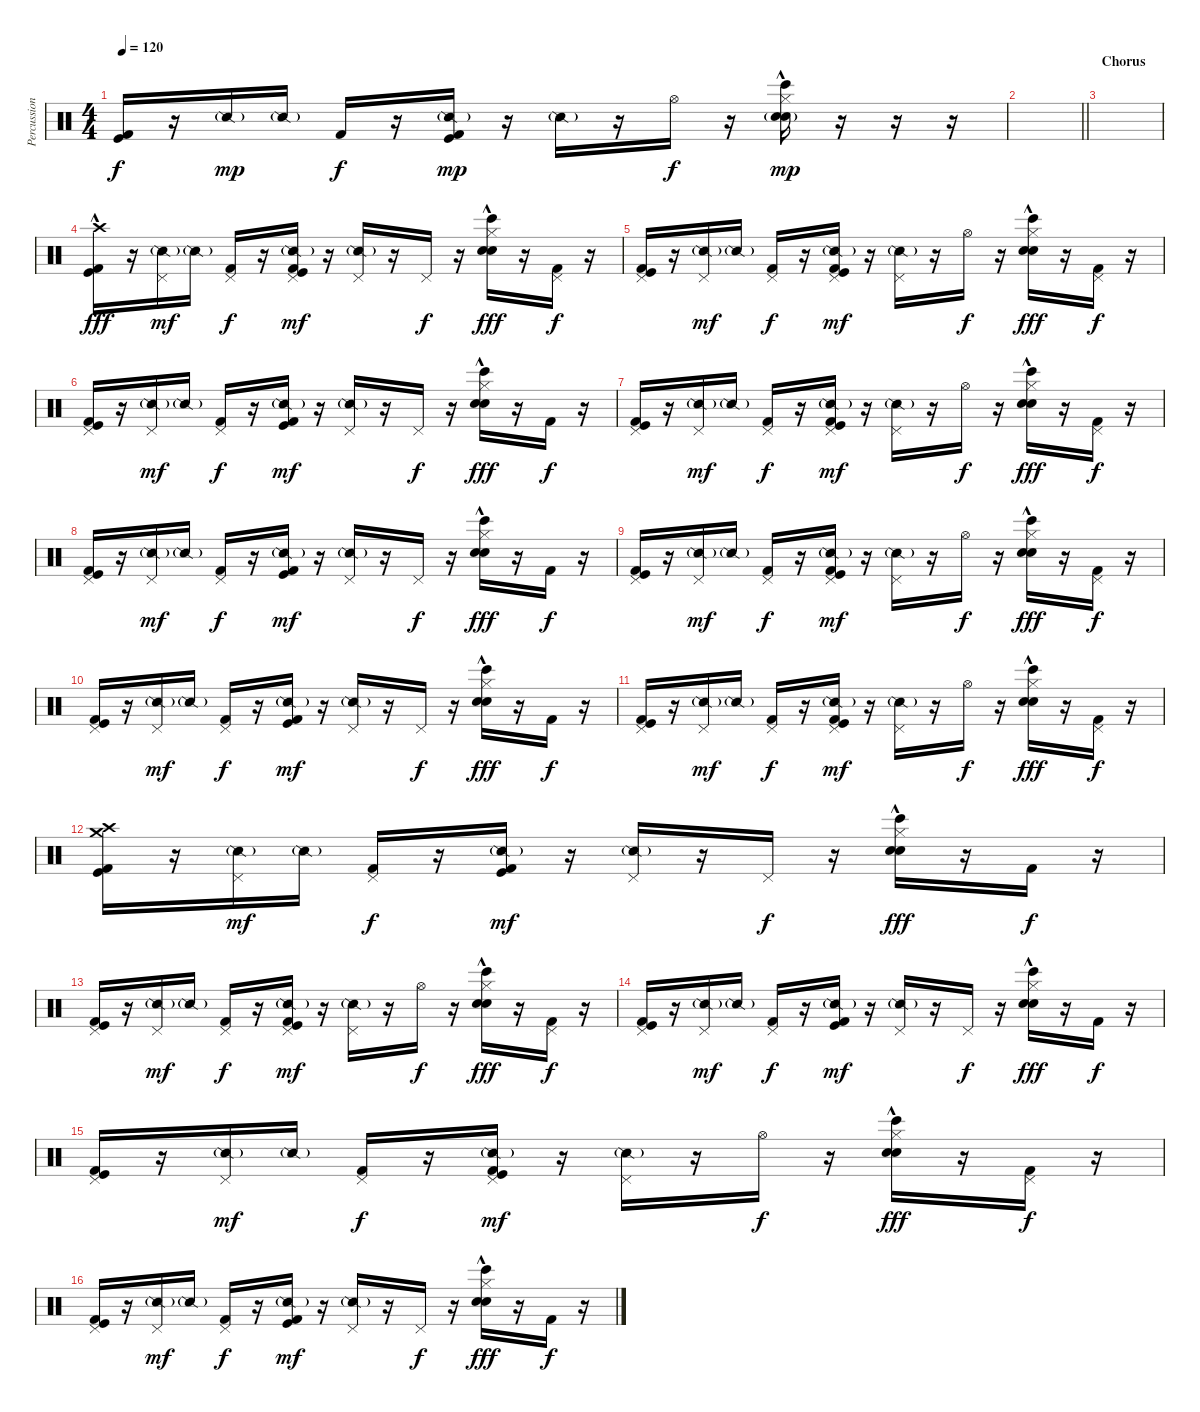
\track ("Percussion" "Percussion") {instrument percussion}
\staff {score}
\articulation defaults
\ts (4 4)
\tempo 120
\clef neutral
\ks c
("Kick (hit) 2" "Kick (hit)").16{dy f} r.16 "Snare (side stick) 2"{g}.16{dy mp} "Snare (side stick) 2"{g}.16 "Kick (hit) 2".16{dy f} r.16 ("Snare (side stick) 2"{g} "Kick (hit) 2" "Kick (hit)").16{dy mp} r.16 "Snare (side stick) 2"{g}.16 r.16 "Hi-Hat (open)".16{dy f} r.16 ("Hi-Hat (closed)"{hac} "Hand Clap (hit)" "Bongo High (hit)" "Electric Snare (hit)"{g}).16{dy mp} r.16 r.16 r.16 |
\barLineRight lightlight
|
\section ("" "Chorus")
|
("Crash high (hit)" "Kick (hit) 2"{hac} "Kick (hit)"{hac}).16{dy fff} r.16 ("Pedal Hi-Hat (hit)" "Snare (side stick) 2"{g}).16{dy mf} "Snare (side stick) 2"{g}.16 ("Pedal Hi-Hat (hit)" "Kick (hit) 2").16{dy f} r.16 ("Pedal Hi-Hat (hit)" "Snare (side stick) 2"{g} "Kick (hit) 2" "Kick (hit)").16{dy mf} r.16 ("Pedal Hi-Hat (hit)" "Snare (side stick) 2"{g}).16 r.16 "Pedal Hi-Hat (hit)".16{dy f} r.16 ("Hi-Hat (closed)"{hac} "Hand Clap (hit)" "Bongo High (hit)" "Electric Snare (hit)").16{dy fff} r.16 ("Pedal Hi-Hat (hit)" "Kick (hit) 2").16{dy f} r.16 |
("Pedal Hi-Hat (hit)" "Kick (hit) 2" "Kick (hit)").16 r.16 ("Pedal Hi-Hat (hit)" "Snare (side stick) 2"{g}).16{dy mf} "Snare (side stick) 2"{g}.16 ("Pedal Hi-Hat (hit)" "Kick (hit) 2").16{dy f} r.16 ("Pedal Hi-Hat (hit)" "Snare (side stick) 2"{g} "Kick (hit) 2" "Kick (hit)").16{dy mf} r.16 ("Pedal Hi-Hat (hit)" "Snare (side stick) 2"{g}).16 r.16 "Hi-Hat (open)".16{dy f} r.16 ("Hi-Hat (closed)"{hac} "Hand Clap (hit)" "Bongo High (hit)" "Electric Snare (hit)").16{dy fff} r.16 ("Pedal Hi-Hat (hit)" "Kick (hit) 2").16{dy f} r.16 |
("Pedal Hi-Hat (hit)" "Kick (hit) 2" "Kick (hit)").16 r.16 ("Pedal Hi-Hat (hit)" "Snare (side stick) 2"{g}).16{dy mf} "Snare (side stick) 2"{g}.16 ("Pedal Hi-Hat (hit)" "Kick (hit) 2").16{dy f} r.16 ("Snare (side stick) 2"{g} "Kick (hit) 2" "Kick (hit)").16{dy mf} r.16 ("Pedal Hi-Hat (hit)" "Snare (side stick) 2"{g}).16 r.16 "Pedal Hi-Hat (hit)".16{dy f} r.16 ("Hi-Hat (closed)"{hac} "Hand Clap (hit)" "Bongo High (hit)" "Electric Snare (hit)").16{dy fff} r.16 "Kick (hit) 2".16{dy f} r.16 |
("Pedal Hi-Hat (hit)" "Kick (hit) 2" "Kick (hit)").16 r.16 ("Pedal Hi-Hat (hit)" "Snare (side stick) 2"{g}).16{dy mf} "Snare (side stick) 2"{g}.16 ("Pedal Hi-Hat (hit)" "Kick (hit) 2").16{dy f} r.16 ("Pedal Hi-Hat (hit)" "Snare (side stick) 2"{g} "Kick (hit) 2" "Kick (hit)").16{dy mf} r.16 ("Pedal Hi-Hat (hit)" "Snare (side stick) 2"{g}).16 r.16 "Hi-Hat (open)".16{dy f} r.16 ("Hi-Hat (closed)"{hac} "Hand Clap (hit)" "Bongo High (hit)" "Electric Snare (hit)").16{dy fff} r.16 ("Pedal Hi-Hat (hit)" "Kick (hit) 2").16{dy f} r.16 |
("Pedal Hi-Hat (hit)" "Kick (hit) 2" "Kick (hit)").16 r.16 ("Pedal Hi-Hat (hit)" "Snare (side stick) 2"{g}).16{dy mf} "Snare (side stick) 2"{g}.16 ("Pedal Hi-Hat (hit)" "Kick (hit) 2").16{dy f} r.16 ("Snare (side stick) 2"{g} "Kick (hit) 2" "Kick (hit)").16{dy mf} r.16 ("Pedal Hi-Hat (hit)" "Snare (side stick) 2"{g}).16 r.16 "Pedal Hi-Hat (hit)".16{dy f} r.16 ("Hi-Hat (closed)"{hac} "Hand Clap (hit)" "Bongo High (hit)" "Electric Snare (hit)").16{dy fff} r.16 "Kick (hit) 2".16{dy f} r.16 |
("Pedal Hi-Hat (hit)" "Kick (hit) 2" "Kick (hit)").16 r.16 ("Pedal Hi-Hat (hit)" "Snare (side stick) 2"{g}).16{dy mf} "Snare (side stick) 2"{g}.16 ("Pedal Hi-Hat (hit)" "Kick (hit) 2").16{dy f} r.16 ("Pedal Hi-Hat (hit)" "Snare (side stick) 2"{g} "Kick (hit) 2" "Kick (hit)").16{dy mf} r.16 ("Pedal Hi-Hat (hit)" "Snare (side stick) 2"{g}).16 r.16 "Hi-Hat (open)".16{dy f} r.16 ("Hi-Hat (closed)"{hac} "Hand Clap (hit)" "Bongo High (hit)" "Electric Snare (hit)").16{dy fff} r.16 ("Pedal Hi-Hat (hit)" "Kick (hit) 2").16{dy f} r.16 |
("Pedal Hi-Hat (hit)" "Kick (hit) 2" "Kick (hit)").16 r.16 ("Pedal Hi-Hat (hit)" "Snare (side stick) 2"{g}).16{dy mf} "Snare (side stick) 2"{g}.16 ("Pedal Hi-Hat (hit)" "Kick (hit) 2").16{dy f} r.16 ("Snare (side stick) 2"{g} "Kick (hit) 2" "Kick (hit)").16{dy mf} r.16 ("Pedal Hi-Hat (hit)" "Snare (side stick) 2"{g}).16 r.16 "Pedal Hi-Hat (hit)".16{dy f} r.16 ("Hi-Hat (closed)"{hac} "Hand Clap (hit)" "Bongo High (hit)" "Electric Snare (hit)").16{dy fff} r.16 "Kick (hit) 2".16{dy f} r.16 |
("Pedal Hi-Hat (hit)" "Kick (hit) 2" "Kick (hit)").16 r.16 ("Pedal Hi-Hat (hit)" "Snare (side stick) 2"{g}).16{dy mf} "Snare (side stick) 2"{g}.16 ("Pedal Hi-Hat (hit)" "Kick (hit) 2").16{dy f} r.16 ("Pedal Hi-Hat (hit)" "Snare (side stick) 2"{g} "Kick (hit) 2" "Kick (hit)").16{dy mf} r.16 ("Pedal Hi-Hat (hit)" "Snare (side stick) 2"{g}).16 r.16 "Hi-Hat (open)".16{dy f} r.16 ("Hi-Hat (closed)"{hac} "Hand Clap (hit)" "Bongo High (hit)" "Electric Snare (hit)").16{dy fff} r.16 ("Pedal Hi-Hat (hit)" "Kick (hit) 2").16{dy f} r.16 |
("Crash high (hit)" "Crash medium (hit)" "Kick (hit) 2" "Kick (hit)").16 r.16 ("Pedal Hi-Hat (hit)" "Snare (side stick) 2"{g}).16{dy mf} "Snare (side stick) 2"{g}.16 ("Pedal Hi-Hat (hit)" "Kick (hit) 2").16{dy f} r.16 ("Snare (side stick) 2"{g} "Kick (hit) 2" "Kick (hit)").16{dy mf} r.16 ("Pedal Hi-Hat (hit)" "Snare (side stick) 2"{g}).16 r.16 "Pedal Hi-Hat (hit)".16{dy f} r.16 ("Hi-Hat (closed)"{hac} "Hand Clap (hit)" "Bongo High (hit)" "Electric Snare (hit)").16{dy fff} r.16 "Kick (hit) 2".16{dy f} r.16 |
("Pedal Hi-Hat (hit)" "Kick (hit) 2" "Kick (hit)").16 r.16 ("Pedal Hi-Hat (hit)" "Snare (side stick) 2"{g}).16{dy mf} "Snare (side stick) 2"{g}.16 ("Pedal Hi-Hat (hit)" "Kick (hit) 2").16{dy f} r.16 ("Pedal Hi-Hat (hit)" "Snare (side stick) 2"{g} "Kick (hit) 2" "Kick (hit)").16{dy mf} r.16 ("Pedal Hi-Hat (hit)" "Snare (side stick) 2"{g}).16 r.16 "Hi-Hat (open)".16{dy f} r.16 ("Hi-Hat (closed)"{hac} "Hand Clap (hit)" "Bongo High (hit)" "Electric Snare (hit)").16{dy fff} r.16 ("Pedal Hi-Hat (hit)" "Kick (hit) 2").16{dy f} r.16 |
("Pedal Hi-Hat (hit)" "Kick (hit) 2" "Kick (hit)").16 r.16 ("Pedal Hi-Hat (hit)" "Snare (side stick) 2"{g}).16{dy mf} "Snare (side stick) 2"{g}.16 ("Pedal Hi-Hat (hit)" "Kick (hit) 2").16{dy f} r.16 ("Snare (side stick) 2"{g} "Kick (hit) 2" "Kick (hit)").16{dy mf} r.16 ("Pedal Hi-Hat (hit)" "Snare (side stick) 2"{g}).16 r.16 "Pedal Hi-Hat (hit)".16{dy f} r.16 ("Hi-Hat (closed)"{hac} "Hand Clap (hit)" "Bongo High (hit)" "Electric Snare (hit)").16{dy fff} r.16 "Kick (hit) 2".16{dy f} r.16 |
("Pedal Hi-Hat (hit)" "Kick (hit) 2" "Kick (hit)").16 r.16 ("Pedal Hi-Hat (hit)" "Snare (side stick) 2"{g}).16{dy mf} "Snare (side stick) 2"{g}.16 ("Pedal Hi-Hat (hit)" "Kick (hit) 2").16{dy f} r.16 ("Pedal Hi-Hat (hit)" "Snare (side stick) 2"{g} "Kick (hit) 2" "Kick (hit)").16{dy mf} r.16 ("Pedal Hi-Hat (hit)" "Snare (side stick) 2"{g}).16 r.16 "Hi-Hat (open)".16{dy f} r.16 ("Hi-Hat (closed)"{hac} "Hand Clap (hit)" "Bongo High (hit)" "Electric Snare (hit)").16{dy fff} r.16 ("Pedal Hi-Hat (hit)" "Kick (hit) 2").16{dy f} r.16 |
("Pedal Hi-Hat (hit)" "Kick (hit) 2" "Kick (hit)").16 r.16 ("Pedal Hi-Hat (hit)" "Snare (side stick) 2"{g}).16{dy mf} "Snare (side stick) 2"{g}.16 ("Pedal Hi-Hat (hit)" "Kick (hit) 2").16{dy f} r.16 ("Snare (side stick) 2"{g} "Kick (hit) 2" "Kick (hit)").16{dy mf} r.16 ("Pedal Hi-Hat (hit)" "Snare (side stick) 2"{g}).16 r.16 "Pedal Hi-Hat (hit)".16{dy f} r.16 ("Hi-Hat (closed)"{hac} "Hand Clap (hit)" "Bongo High (hit)" "Electric Snare (hit)").16{dy fff} r.16 "Kick (hit) 2".16{dy f} r.16
